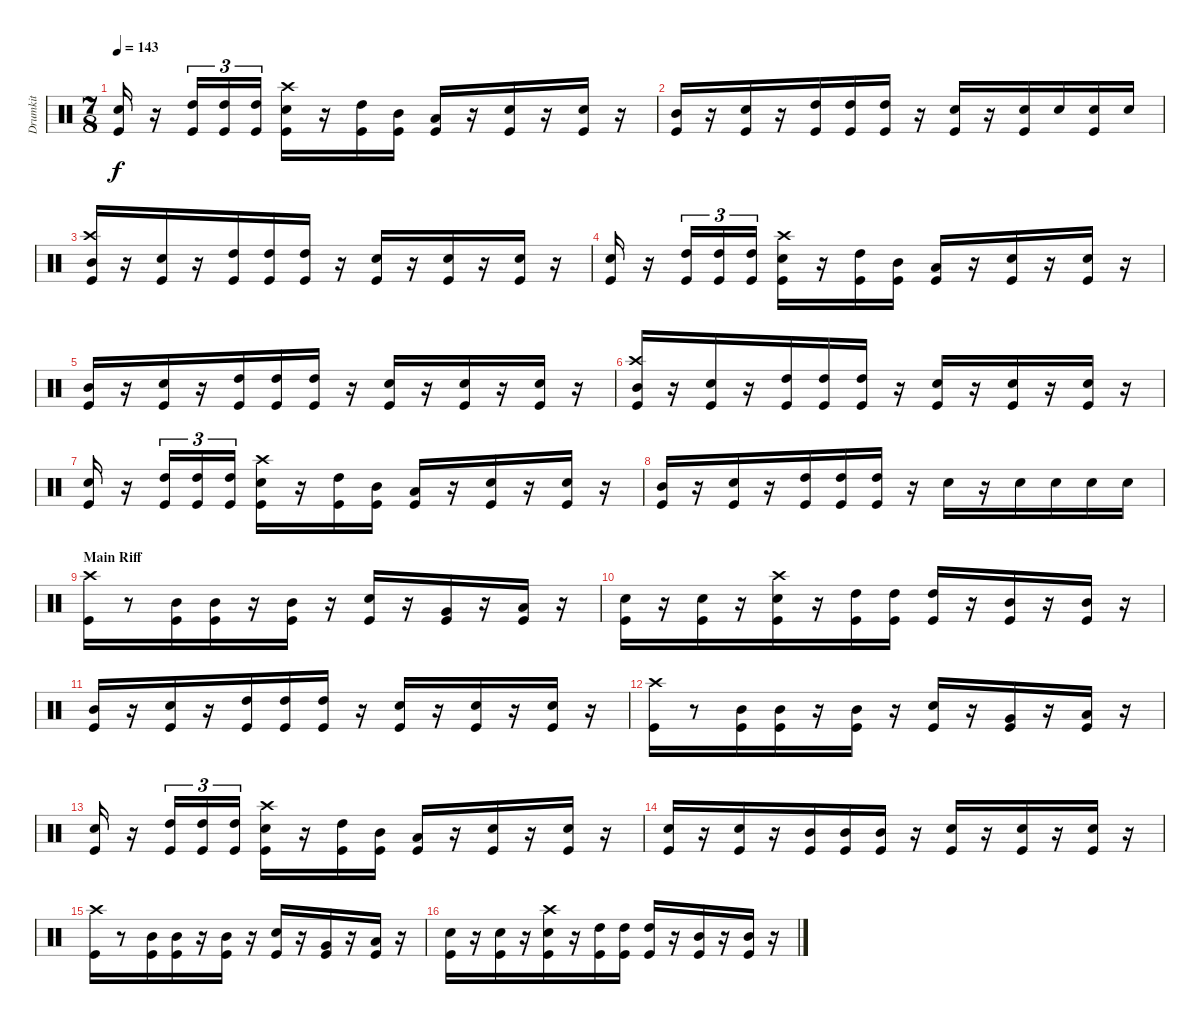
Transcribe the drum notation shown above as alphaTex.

\track ("Drumkit" "Drumkit") {instrument percussion}
\staff {score}
\articulation defaults
\ts (7 8)
\tempo 143
\clef neutral
\ks c
("Snare (hit) 2" "Kick (hit)").16{dy f} r.16 ("High Tom (hit)" "Kick (hit)").16{tu (3 2)} ("High Tom (hit)" "Kick (hit)").16{tu (3 2)} ("High Tom (hit)" "Kick (hit)").16{tu (3 2)} ("Crash high (hit)" "Snare (hit) 2" "Kick (hit)").16 r.16 ("High Tom (hit)" "Kick (hit)").16 ("Mid Tom (hit)" "Kick (hit)").16 ("Low Tom (hit)" "Kick (hit)").16 r.16 ("Snare (hit) 2" "Kick (hit)").16 r.16 ("Snare (hit) 2" "Kick (hit)").16 r.16 |
("Mid Tom (hit)" "Kick (hit)").16 r.16 ("Snare (hit) 2" "Kick (hit)").16 r.16 ("High Tom (hit)" "Kick (hit)").16 ("High Tom (hit)" "Kick (hit)").16 ("High Tom (hit)" "Kick (hit)").16 r.16 ("Snare (hit) 2" "Kick (hit)").16 r.16 ("Snare (hit) 2" "Kick (hit)").16 "Snare (hit) 2".16 ("Snare (hit) 2" "Kick (hit)").16 "Snare (hit) 2".16 |
("Crash high (hit)" "Mid Tom (hit)" "Kick (hit)").16 r.16 ("Snare (hit) 2" "Kick (hit)").16 r.16 ("High Tom (hit)" "Kick (hit)").16 ("High Tom (hit)" "Kick (hit)").16 ("High Tom (hit)" "Kick (hit)").16 r.16 ("Snare (hit) 2" "Kick (hit)").16 r.16 ("Snare (hit) 2" "Kick (hit)").16 r.16 ("Snare (hit) 2" "Kick (hit)").16 r.16 |
("Snare (hit) 2" "Kick (hit)").16 r.16 ("High Tom (hit)" "Kick (hit)").16{tu (3 2)} ("High Tom (hit)" "Kick (hit)").16{tu (3 2)} ("High Tom (hit)" "Kick (hit)").16{tu (3 2)} ("Crash high (hit)" "Snare (hit) 2" "Kick (hit)").16 r.16 ("High Tom (hit)" "Kick (hit)").16 ("Mid Tom (hit)" "Kick (hit)").16 ("Low Tom (hit)" "Kick (hit)").16 r.16 ("Snare (hit) 2" "Kick (hit)").16 r.16 ("Snare (hit) 2" "Kick (hit)").16 r.16 |
("Mid Tom (hit)" "Kick (hit)").16 r.16 ("Snare (hit) 2" "Kick (hit)").16 r.16 ("High Tom (hit)" "Kick (hit)").16 ("High Tom (hit)" "Kick (hit)").16 ("High Tom (hit)" "Kick (hit)").16 r.16 ("Snare (hit) 2" "Kick (hit)").16 r.16 ("Snare (hit) 2" "Kick (hit)").16 r.16 ("Snare (hit) 2" "Kick (hit)").16 r.16 |
("Crash high (hit)" "Mid Tom (hit)" "Kick (hit)").16 r.16 ("Snare (hit) 2" "Kick (hit)").16 r.16 ("High Tom (hit)" "Kick (hit)").16 ("High Tom (hit)" "Kick (hit)").16 ("High Tom (hit)" "Kick (hit)").16 r.16 ("Snare (hit) 2" "Kick (hit)").16 r.16 ("Snare (hit) 2" "Kick (hit)").16 r.16 ("Snare (hit) 2" "Kick (hit)").16 r.16 |
("Snare (hit) 2" "Kick (hit)").16 r.16 ("High Tom (hit)" "Kick (hit)").16{tu (3 2)} ("High Tom (hit)" "Kick (hit)").16{tu (3 2)} ("High Tom (hit)" "Kick (hit)").16{tu (3 2)} ("Crash high (hit)" "Snare (hit) 2" "Kick (hit)").16 r.16 ("High Tom (hit)" "Kick (hit)").16 ("Mid Tom (hit)" "Kick (hit)").16 ("Low Tom (hit)" "Kick (hit)").16 r.16 ("Snare (hit) 2" "Kick (hit)").16 r.16 ("Snare (hit) 2" "Kick (hit)").16 r.16 |
("Mid Tom (hit)" "Kick (hit)").16 r.16 ("Snare (hit) 2" "Kick (hit)").16 r.16 ("High Tom (hit)" "Kick (hit)").16 ("High Tom (hit)" "Kick (hit)").16 ("High Tom (hit)" "Kick (hit)").16 r.16 "Snare (hit) 2".16 r.16 "Snare (hit) 2".16 "Snare (hit) 2".16 "Snare (hit) 2".16 "Snare (hit) 2".16 |
\section ("" "Main Riff")
("Crash high (hit)" "Kick (hit)").16 r.8 ("Mid Tom (hit)" "Kick (hit)").16 ("Mid Tom (hit)" "Kick (hit)").16 r.16 ("Mid Tom (hit)" "Kick (hit)").16 r.16 ("Snare (hit) 2" "Kick (hit)").16 r.16 ("Very Low Tom (hit)" "Kick (hit)").16 r.16 ("Low Tom (hit)" "Kick (hit)").16 r.16 |
("Snare (hit) 2" "Kick (hit)").16 r.16 ("Snare (hit) 2" "Kick (hit)").16 r.16 ("Crash high (hit)" "Snare (hit) 2" "Kick (hit)").16 r.16 ("High Tom (hit)" "Kick (hit)").16 ("High Tom (hit)" "Kick (hit)").16 ("High Tom (hit)" "Kick (hit)").16 r.16 ("Mid Tom (hit)" "Kick (hit)").16 r.16 ("Mid Tom (hit)" "Kick (hit)").16 r.16 |
("Mid Tom (hit)" "Kick (hit)").16 r.16 ("Snare (hit) 2" "Kick (hit)").16 r.16 ("High Tom (hit)" "Kick (hit)").16 ("High Tom (hit)" "Kick (hit)").16 ("High Tom (hit)" "Kick (hit)").16 r.16 ("Snare (hit) 2" "Kick (hit)").16 r.16 ("Snare (hit) 2" "Kick (hit)").16 r.16 ("Snare (hit) 2" "Kick (hit)").16 r.16 |
("Crash high (hit)" "Kick (hit)").16 r.8 ("Mid Tom (hit)" "Kick (hit)").16 ("Mid Tom (hit)" "Kick (hit)").16 r.16 ("Mid Tom (hit)" "Kick (hit)").16 r.16 ("Snare (hit) 2" "Kick (hit)").16 r.16 ("Very Low Tom (hit)" "Kick (hit)").16 r.16 ("Low Tom (hit)" "Kick (hit)").16 r.16 |
("Snare (hit) 2" "Kick (hit)").16 r.16 ("High Tom (hit)" "Kick (hit)").16{tu (3 2)} ("High Tom (hit)" "Kick (hit)").16{tu (3 2)} ("High Tom (hit)" "Kick (hit)").16{tu (3 2)} ("Crash high (hit)" "Snare (hit) 2" "Kick (hit)").16 r.16 ("High Tom (hit)" "Kick (hit)").16 ("Mid Tom (hit)" "Kick (hit)").16 ("Low Tom (hit)" "Kick (hit)").16 r.16 ("Snare (hit) 2" "Kick (hit)").16 r.16 ("Snare (hit) 2" "Kick (hit)").16 r.16 |
("Snare (hit) 2" "Kick (hit)").16 r.16 ("Snare (hit) 2" "Kick (hit)").16 r.16 ("Mid Tom (hit)" "Kick (hit)").16 ("Mid Tom (hit)" "Kick (hit)").16 ("Mid Tom (hit)" "Kick (hit)").16 r.16 ("Snare (hit) 2" "Kick (hit)").16 r.16 ("Snare (hit) 2" "Kick (hit)").16 r.16 ("Snare (hit) 2" "Kick (hit)").16 r.16 |
("Crash high (hit)" "Kick (hit)").16 r.8 ("Mid Tom (hit)" "Kick (hit)").16 ("Mid Tom (hit)" "Kick (hit)").16 r.16 ("Mid Tom (hit)" "Kick (hit)").16 r.16 ("Snare (hit) 2" "Kick (hit)").16 r.16 ("Very Low Tom (hit)" "Kick (hit)").16 r.16 ("Low Tom (hit)" "Kick (hit)").16 r.16 |
("Snare (hit) 2" "Kick (hit)").16 r.16 ("Snare (hit) 2" "Kick (hit)").16 r.16 ("Crash high (hit)" "Snare (hit) 2" "Kick (hit)").16 r.16 ("High Tom (hit)" "Kick (hit)").16 ("High Tom (hit)" "Kick (hit)").16 ("High Tom (hit)" "Kick (hit)").16 r.16 ("Mid Tom (hit)" "Kick (hit)").16 r.16 ("Mid Tom (hit)" "Kick (hit)").16 r.16
